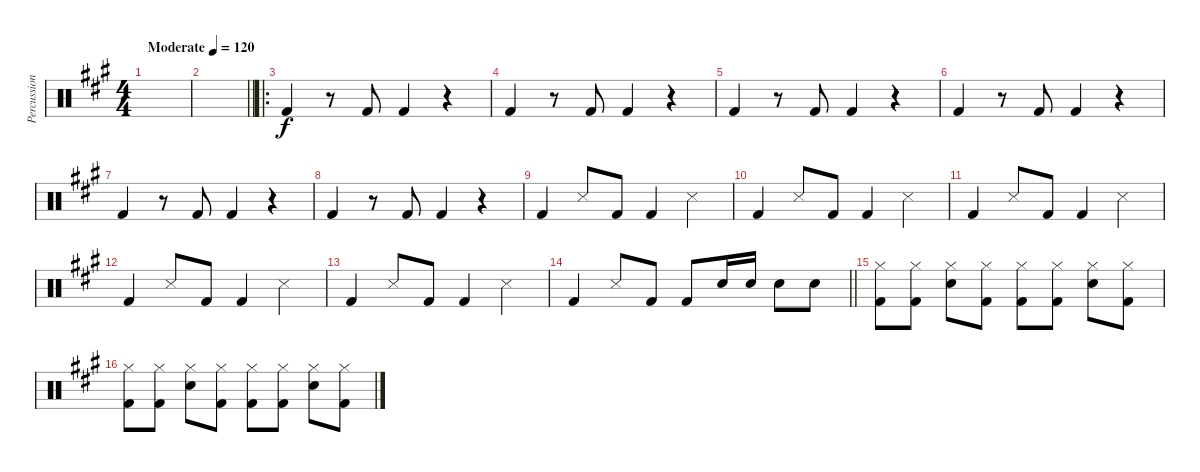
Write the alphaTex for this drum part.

\track ("Percussion" "Percussion") {instrument percussion}
\staff {score}
\articulation defaults
\ts (4 4)
\tempo (120 "Moderate")
\clef neutral
\ks a
|
\barLineRight lightlight
|
\ro "Kick (hit) 2".4
r.8 "Kick (hit) 2".8 "Kick (hit) 2".4 r.4 |
"Kick (hit) 2".4 r.8 "Kick (hit) 2".8 "Kick (hit) 2".4 r.4 |
"Kick (hit) 2".4 r.8 "Kick (hit) 2".8 "Kick (hit) 2".4 r.4 |
"Kick (hit) 2".4 r.8 "Kick (hit) 2".8 "Kick (hit) 2".4 r.4 |
"Kick (hit) 2".4 r.8 "Kick (hit) 2".8 "Kick (hit) 2".4 r.4 |
"Kick (hit) 2".4 r.8 "Kick (hit) 2".8 "Kick (hit) 2".4 r.4 |
"Kick (hit) 2".4 "Snare (side stick) 3".8 "Kick (hit) 2".8 "Kick (hit) 2".4 "Snare (side stick) 3".4 |
"Kick (hit) 2".4 "Snare (side stick) 3".8 "Kick (hit) 2".8 "Kick (hit) 2".4 "Snare (side stick) 3".4 |
"Kick (hit) 2".4 "Snare (side stick) 3".8 "Kick (hit) 2".8 "Kick (hit) 2".4 "Snare (side stick) 3".4 |
"Kick (hit) 2".4 "Snare (side stick) 3".8 "Kick (hit) 2".8 "Kick (hit) 2".4 "Snare (side stick) 3".4 |
"Kick (hit) 2".4 "Snare (side stick) 3".8 "Kick (hit) 2".8 "Kick (hit) 2".4 "Snare (side stick) 3".4 |
\barLineRight lightlight "Kick (hit) 2".4 "Snare (side stick) 3".8 "Kick (hit) 2".8 "Kick (hit) 2".8 "Snare (hit) 2".16 "Snare (hit) 2".16 "Snare (hit) 2".8 "Snare (hit) 2".8
|
("Hi-Hat (closed)" "Kick (hit) 2").8 ("Hi-Hat (closed)" "Kick (hit) 2").8 ("Hi-Hat (closed)" "Snare (hit) 2").8 ("Hi-Hat (closed)" "Kick (hit) 2").8 ("Hi-Hat (closed)" "Kick (hit) 2").8 ("Hi-Hat (closed)" "Kick (hit) 2").8 ("Hi-Hat (closed)" "Snare (hit) 2").8 ("Hi-Hat (closed)" "Kick (hit) 2").8 |
("Hi-Hat (closed)" "Kick (hit) 2").8 ("Hi-Hat (closed)" "Kick (hit) 2").8 ("Hi-Hat (closed)" "Snare (hit) 2").8 ("Hi-Hat (closed)" "Kick (hit) 2").8 ("Hi-Hat (closed)" "Kick (hit) 2").8 ("Hi-Hat (closed)" "Kick (hit) 2").8 ("Hi-Hat (closed)" "Snare (hit) 2").8 ("Hi-Hat (closed)" "Kick (hit) 2").8
